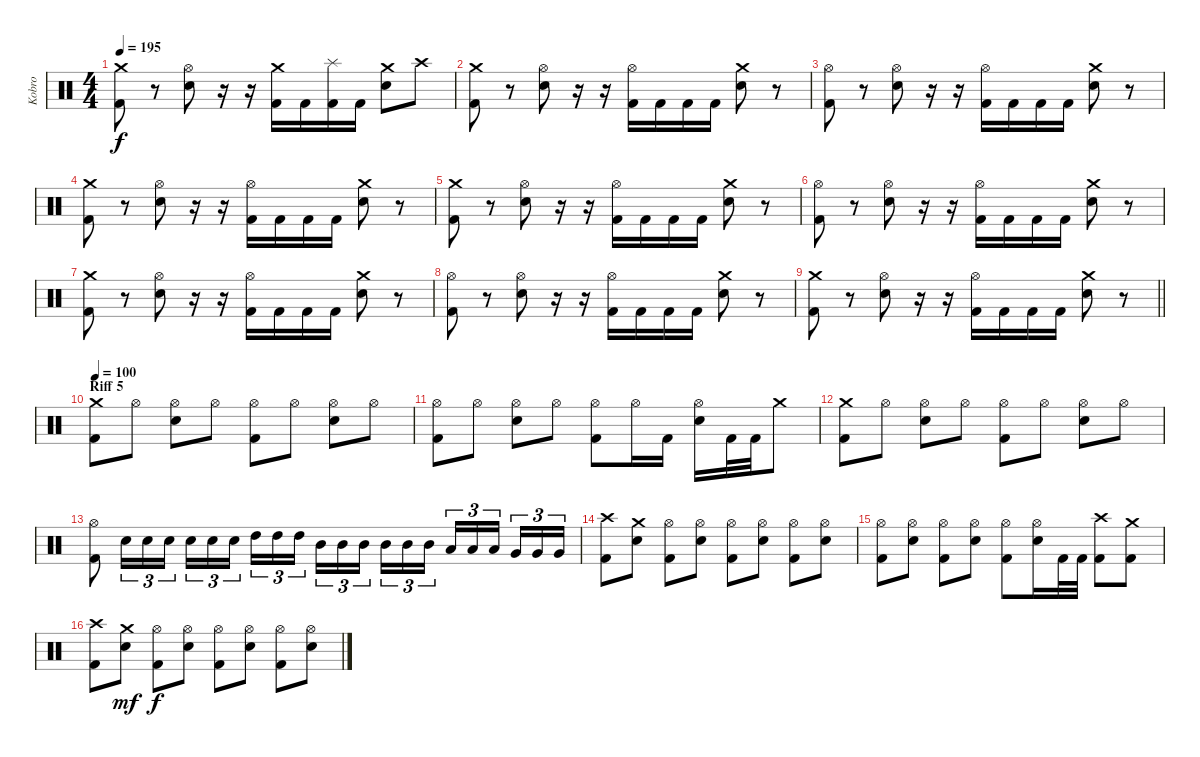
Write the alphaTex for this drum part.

\track ("Kobro" "Kobro") {instrument percussion}
\staff {score}
\articulation defaults
\ts (4 4)
\tempo 195
\clef neutral
\ks c
("Crash medium (hit)" "Kick (hit) 2").8{dy f} r.8 ("Hi-Hat (open)" "Electric Snare (hit)").8 r.16 r.16 ("Crash medium (hit)" "Kick (hit) 2").16 "Kick (hit) 2".16 ("Splash (hit)" "Kick (hit) 2").16 "Kick (hit) 2".16 ("Crash medium (hit)" "Electric Snare (hit)").8 "Crash high (hit)".8 |
("Crash medium (hit)" "Kick (hit) 2").8 r.8 ("Hi-Hat (open)" "Electric Snare (hit)").8 r.16 r.16 ("Hi-Hat (open)" "Kick (hit) 2").16 "Kick (hit) 2".16 "Kick (hit) 2".16 "Kick (hit) 2".16 ("Crash medium (hit)" "Electric Snare (hit)").8 r.8 |
("Hi-Hat (open)" "Kick (hit) 2").8 r.8 ("Hi-Hat (open)" "Electric Snare (hit)").8 r.16 r.16 ("Hi-Hat (open)" "Kick (hit) 2").16 "Kick (hit) 2".16 "Kick (hit) 2".16 "Kick (hit) 2".16 ("Crash medium (hit)" "Electric Snare (hit)").8 r.8 |
("Crash medium (hit)" "Kick (hit) 2").8 r.8 ("Hi-Hat (open)" "Electric Snare (hit)").8 r.16 r.16 ("Hi-Hat (open)" "Kick (hit) 2").16 "Kick (hit) 2".16 "Kick (hit) 2".16 "Kick (hit) 2".16 ("Crash medium (hit)" "Electric Snare (hit)").8 r.8 |
("Crash medium (hit)" "Kick (hit) 2").8 r.8 ("Hi-Hat (open)" "Electric Snare (hit)").8 r.16 r.16 ("Hi-Hat (open)" "Kick (hit) 2").16 "Kick (hit) 2".16 "Kick (hit) 2".16 "Kick (hit) 2".16 ("Crash medium (hit)" "Electric Snare (hit)").8 r.8 |
("Hi-Hat (open)" "Kick (hit) 2").8 r.8 ("Hi-Hat (open)" "Electric Snare (hit)").8 r.16 r.16 ("Hi-Hat (open)" "Kick (hit) 2").16 "Kick (hit) 2".16 "Kick (hit) 2".16 "Kick (hit) 2".16 ("Crash medium (hit)" "Electric Snare (hit)").8 r.8 |
("Crash medium (hit)" "Kick (hit) 2").8 r.8 ("Hi-Hat (open)" "Electric Snare (hit)").8 r.16 r.16 ("Hi-Hat (open)" "Kick (hit) 2").16 "Kick (hit) 2".16 "Kick (hit) 2".16 "Kick (hit) 2".16 ("Crash medium (hit)" "Electric Snare (hit)").8 r.8 |
("Hi-Hat (open)" "Kick (hit) 2").8 r.8 ("Hi-Hat (open)" "Electric Snare (hit)").8 r.16 r.16 ("Hi-Hat (open)" "Kick (hit) 2").16 "Kick (hit) 2".16 "Kick (hit) 2".16 "Kick (hit) 2".16 ("Crash medium (hit)" "Electric Snare (hit)").8 r.8 |
\barLineRight lightlight
("Crash medium (hit)" "Kick (hit) 2").8 r.8 ("Hi-Hat (open)" "Electric Snare (hit)").8 r.16 r.16 ("Hi-Hat (open)" "Kick (hit) 2").16 "Kick (hit) 2".16 "Kick (hit) 2".16 "Kick (hit) 2".16 ("Crash medium (hit)" "Electric Snare (hit)").8 r.8 |
\section ("" "Riff 5")
\tempo 100
("Crash medium (hit)" "Kick (hit) 2").8 "Hi-Hat (open)".8 ("Hi-Hat (open)" "Electric Snare (hit)").8 "Hi-Hat (open)".8 ("Hi-Hat (open)" "Kick (hit) 2").8 "Hi-Hat (open)".8 ("Hi-Hat (open)" "Electric Snare (hit)").8 "Hi-Hat (open)".8 |
("Hi-Hat (open)" "Kick (hit) 2").8 "Hi-Hat (open)".8 ("Hi-Hat (open)" "Electric Snare (hit)").8 "Hi-Hat (open)".8 ("Hi-Hat (open)" "Kick (hit) 2").8 "Hi-Hat (open)".16 "Kick (hit) 2".16 ("Hi-Hat (open)" "Electric Snare (hit)").16 "Kick (hit) 2".32 "Kick (hit) 2".32 "Crash medium (hit)".8 |
("Crash medium (hit)" "Kick (hit) 2").8 "Hi-Hat (open)".8 ("Hi-Hat (open)" "Electric Snare (hit)").8 "Hi-Hat (open)".8 ("Hi-Hat (open)" "Kick (hit) 2").8 "Hi-Hat (open)".8 ("Hi-Hat (open)" "Electric Snare (hit)").8 "Hi-Hat (open)".8 |
("Hi-Hat (open)" "Kick (hit) 2").8 "Electric Snare (hit)".16{tu (3 2)} "Electric Snare (hit)".16{tu (3 2)} "Electric Snare (hit)".16{tu (3 2)} "Electric Snare (hit)".16{tu (3 2)} "Electric Snare (hit)".16{tu (3 2)} "Electric Snare (hit)".16{tu (3 2)} "High Tom (hit)".16{tu (3 2)} "High Tom (hit)".16{tu (3 2)} "High Tom (hit)".16{tu (3 2)} "Mid Tom (hit)".16{tu (3 2)} "Mid Tom (hit)".16{tu (3 2)} "Mid Tom (hit)".16{tu (3 2)} "Mid Tom (hit)".16{tu (3 2)} "Mid Tom (hit)".16{tu (3 2)} "Mid Tom (hit)".16{tu (3 2)} "Low Tom (hit)".16{tu (3 2)} "Low Tom (hit)".16{tu (3 2)} "Low Tom (hit)".16{tu (3 2)} "Very Low Tom (hit)".16{tu (3 2)} "Very Low Tom (hit)".16{tu (3 2)} "Very Low Tom (hit)".16{tu (3 2)} |
("Crash high (hit)" "Kick (hit) 2").8 ("Crash medium (hit)" "Electric Snare (hit)").8 ("Hi-Hat (open)" "Kick (hit) 2").8 ("Hi-Hat (open)" "Electric Snare (hit)").8 ("Hi-Hat (open)" "Kick (hit) 2").8 ("Hi-Hat (open)" "Electric Snare (hit)").8 ("Hi-Hat (open)" "Kick (hit) 2").8 ("Hi-Hat (open)" "Electric Snare (hit)").8 |
("Hi-Hat (open)" "Kick (hit) 2").8 ("Hi-Hat (open)" "Electric Snare (hit)").8 ("Hi-Hat (open)" "Kick (hit) 2").8 ("Hi-Hat (open)" "Electric Snare (hit)").8 ("Hi-Hat (open)" "Kick (hit) 2").8 ("Hi-Hat (open)" "Electric Snare (hit)").16 "Kick (hit) 2".32 "Kick (hit) 2".32 ("Crash high (hit)" "Kick (hit) 2").8 ("Crash medium (hit)" "Kick (hit) 2").8 |
("Crash high (hit)" "Kick (hit) 2").8 ("Crash medium (hit)" "Electric Snare (hit)").8{dy mf} ("Hi-Hat (open)" "Kick (hit) 2").8{dy f} ("Hi-Hat (open)" "Electric Snare (hit)").8 ("Hi-Hat (open)" "Kick (hit) 2").8 ("Hi-Hat (open)" "Electric Snare (hit)").8 ("Hi-Hat (open)" "Kick (hit) 2").8 ("Hi-Hat (open)" "Electric Snare (hit)").8
